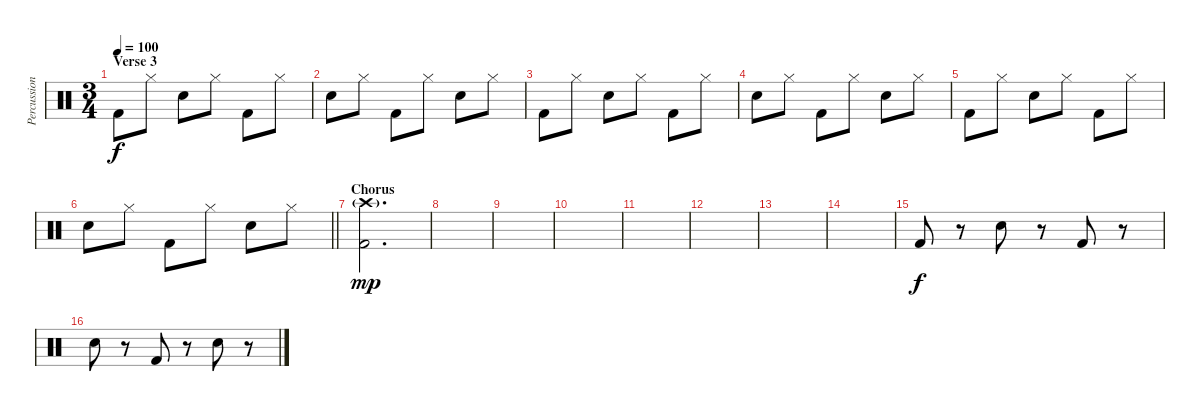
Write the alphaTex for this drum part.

\track ("Percussion" "Percussion") {instrument percussion}
\staff {score}
\articulation defaults
\ts (3 4)
\section ("" "Verse 3")
\tempo 100
\clef neutral
\ks c "Kick (hit) 2".8{dy f} "Hi-Hat (closed)".8 "Snare (hit) 2".8 "Hi-Hat (closed)".8 "Kick (hit) 2".8 "Hi-Hat (closed)".8
|
"Snare (hit) 2".8 "Hi-Hat (closed)".8 "Kick (hit) 2".8 "Hi-Hat (closed)".8 "Snare (hit) 2".8 "Hi-Hat (closed)".8 |
"Kick (hit) 2".8 "Hi-Hat (closed)".8 "Snare (hit) 2".8 "Hi-Hat (closed)".8 "Kick (hit) 2".8 "Hi-Hat (closed)".8 |
"Snare (hit) 2".8 "Hi-Hat (closed)".8 "Kick (hit) 2".8 "Hi-Hat (closed)".8 "Snare (hit) 2".8 "Hi-Hat (closed)".8 |
"Kick (hit) 2".8 "Hi-Hat (closed)".8 "Snare (hit) 2".8 "Hi-Hat (closed)".8 "Kick (hit) 2".8 "Hi-Hat (closed)".8 |
\barLineRight lightlight "Snare (hit) 2".8 "Hi-Hat (closed)".8 "Kick (hit) 2".8 "Hi-Hat (closed)".8 "Snare (hit) 2".8 "Hi-Hat (closed)".8
|
\section ("" "Chorus")
("Crash high (hit)"{g} "Kick (hit) 2").2{d dy mp} |
|
|
|
|
|
|
|
"Kick (hit) 2".8{dy f} r.8 "Snare (hit) 2".8 r.8 "Kick (hit) 2".8 r.8 |
"Snare (hit) 2".8 r.8 "Kick (hit) 2".8 r.8 "Snare (hit) 2".8 r.8
